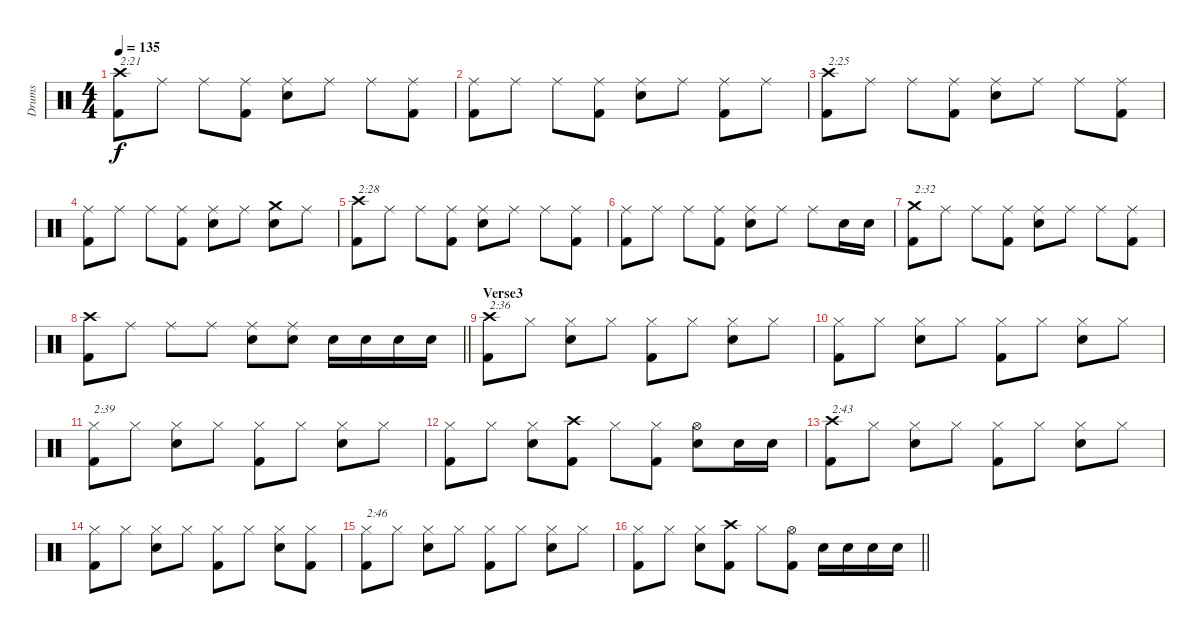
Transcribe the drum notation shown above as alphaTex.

\track ("Drums" "Drums") {instrument percussion}
\staff {score}
\articulation defaults
\ts (4 4)
\tempo 135
\clef neutral
\ks c
("Crash high (hit)" "Kick (hit) 2").8{txt "2:21" dy f} "Ride (middle)".8 "Ride (middle)".8 ("Ride (middle)" "Kick (hit) 2").8 ("Ride (middle)" "Electric Snare (hit)").8 "Ride (middle)".8 "Ride (middle)".8 ("Ride (middle)" "Kick (hit) 2").8 |
("Ride (middle)" "Kick (hit) 2").8 "Ride (middle)".8 "Ride (middle)".8 ("Ride (middle)" "Kick (hit) 2").8 ("Ride (middle)" "Electric Snare (hit)").8 "Ride (middle)".8 ("Ride (middle)" "Kick (hit) 2").8 "Ride (middle)".8 |
("Crash high (hit)" "Kick (hit) 2").8{txt "2:25"} "Ride (middle)".8 "Ride (middle)".8 ("Ride (middle)" "Kick (hit) 2").8 ("Ride (middle)" "Electric Snare (hit)").8 "Ride (middle)".8 "Ride (middle)".8 ("Ride (middle)" "Kick (hit) 2").8 |
("Ride (middle)" "Kick (hit) 2").8 "Ride (middle)".8 "Ride (middle)".8 ("Ride (middle)" "Kick (hit) 2").8 ("Ride (middle)" "Electric Snare (hit)").8 "Ride (middle)".8 ("Crash medium (hit)" "Electric Snare (hit)").8 "Ride (middle)".8 |
("Crash high (hit)" "Kick (hit) 2").8{txt "2:28"} "Ride (middle)".8 "Ride (middle)".8 ("Ride (middle)" "Kick (hit) 2").8 ("Ride (middle)" "Electric Snare (hit)").8 "Ride (middle)".8 "Ride (middle)".8 ("Ride (middle)" "Kick (hit) 2").8 |
("Ride (middle)" "Kick (hit) 2").8 "Ride (middle)".8 "Ride (middle)".8 ("Ride (middle)" "Kick (hit) 2").8 ("Ride (middle)" "Electric Snare (hit)").8 "Ride (middle)".8 "Ride (middle)".8 "Electric Snare (hit)".16 "Electric Snare (hit)".16 |
("Crash medium (hit)" "Kick (hit) 2").8{txt "2:32"} "Ride (middle)".8 "Ride (middle)".8 ("Ride (middle)" "Kick (hit) 2").8 ("Ride (middle)" "Electric Snare (hit)").8 "Ride (middle)".8 "Ride (middle)".8 ("Ride (middle)" "Kick (hit) 2").8 |
\barLineRight lightlight
("Crash high (hit)" "Kick (hit) 2").8 "Ride (middle)".8 "Ride (middle)".8 "Ride (middle)".8 ("Ride (middle)" "Electric Snare (hit)").8 ("Ride (middle)" "Electric Snare (hit)").8 "Electric Snare (hit)".16 "Electric Snare (hit)".16 "Electric Snare (hit)".16 "Electric Snare (hit)".16 |
\section ("" "Verse3")
("Crash high (hit)" "Kick (hit) 2").8{txt "2:36"} "Hi-Hat (closed)".8 ("Hi-Hat (closed)" "Electric Snare (hit)").8 "Hi-Hat (closed)".8 ("Hi-Hat (closed)" "Kick (hit) 2").8 "Hi-Hat (closed)".8 ("Hi-Hat (closed)" "Electric Snare (hit)").8 "Hi-Hat (closed)".8 |
("Hi-Hat (closed)" "Kick (hit) 2").8 "Hi-Hat (closed)".8 ("Hi-Hat (closed)" "Electric Snare (hit)").8 "Hi-Hat (closed)".8 ("Hi-Hat (closed)" "Kick (hit) 2").8 "Hi-Hat (closed)".8 ("Hi-Hat (closed)" "Electric Snare (hit)").8 "Hi-Hat (closed)".8 |
("Hi-Hat (closed)" "Kick (hit) 2").8{txt "2:39"} "Hi-Hat (closed)".8 ("Hi-Hat (closed)" "Electric Snare (hit)").8 "Hi-Hat (closed)".8 ("Hi-Hat (closed)" "Kick (hit) 2").8 "Hi-Hat (closed)".8 ("Hi-Hat (closed)" "Electric Snare (hit)").8 "Hi-Hat (closed)".8 |
("Hi-Hat (closed)" "Kick (hit) 2").8 "Hi-Hat (closed)".8 ("Hi-Hat (closed)" "Electric Snare (hit)").8 ("Crash high (hit)" "Kick (hit) 2").8 "Hi-Hat (closed)".8 ("Hi-Hat (closed)" "Kick (hit) 2").8 ("Hi-Hat (open)" "Electric Snare (hit)").8 "Electric Snare (hit)".16 "Electric Snare (hit)".16 |
("Crash high (hit)" "Kick (hit) 2").8{txt "2:43"} "Hi-Hat (closed)".8 ("Hi-Hat (closed)" "Electric Snare (hit)").8 "Hi-Hat (closed)".8 ("Hi-Hat (closed)" "Kick (hit) 2").8 "Hi-Hat (closed)".8 ("Hi-Hat (closed)" "Electric Snare (hit)").8 "Hi-Hat (closed)".8 |
("Hi-Hat (closed)" "Kick (hit) 2").8 "Hi-Hat (closed)".8 ("Hi-Hat (closed)" "Electric Snare (hit)").8 "Hi-Hat (closed)".8 ("Hi-Hat (closed)" "Kick (hit) 2").8 "Hi-Hat (closed)".8 ("Hi-Hat (closed)" "Electric Snare (hit)").8 ("Hi-Hat (closed)" "Kick (hit) 2").8 |
("Hi-Hat (closed)" "Kick (hit) 2").8{txt "2:46"} "Hi-Hat (closed)".8 ("Hi-Hat (closed)" "Electric Snare (hit)").8 "Hi-Hat (closed)".8 ("Hi-Hat (closed)" "Kick (hit) 2").8 "Hi-Hat (closed)".8 ("Hi-Hat (closed)" "Electric Snare (hit)").8 "Hi-Hat (closed)".8 |
\barLineRight lightlight
("Hi-Hat (closed)" "Kick (hit) 2").8 "Hi-Hat (closed)".8 ("Hi-Hat (closed)" "Electric Snare (hit)").8 ("Crash high (hit)" "Kick (hit) 2").8 "Hi-Hat (closed)".8 ("Hi-Hat (open)" "Kick (hit) 2").8 "Electric Snare (hit)".16 "Electric Snare (hit)".16 "Electric Snare (hit)".16 "Electric Snare (hit)".16
